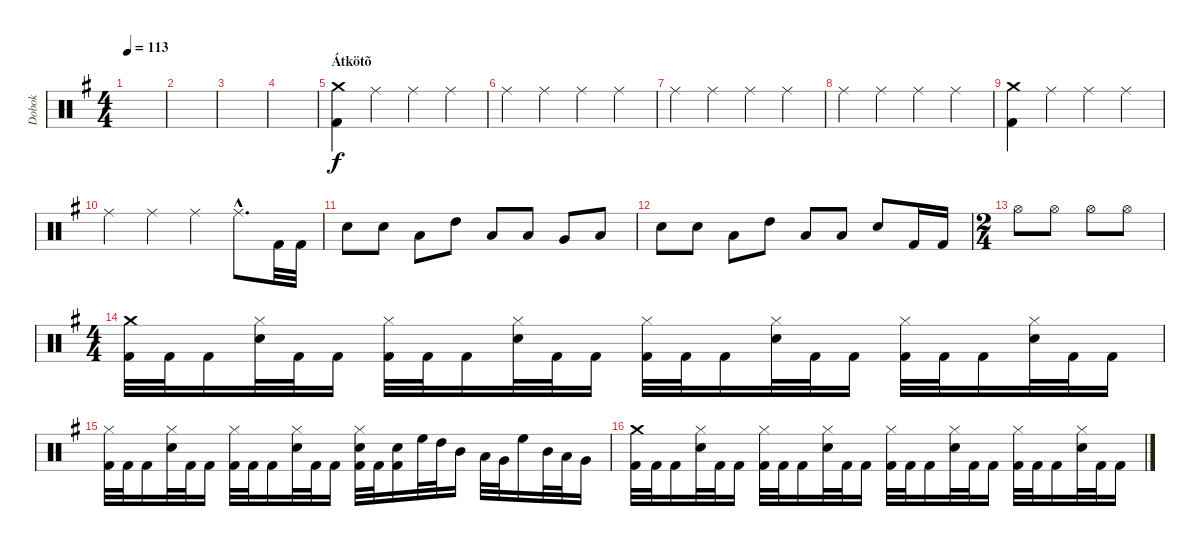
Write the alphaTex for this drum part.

\track ("Dobok" "Dobok") {instrument percussion}
\staff {score}
\articulation defaults
\ts (4 4)
\tempo 113
\clef neutral
\ks g
|
|
|
|
\section ("" "Átkötõ")
("Crash medium (hit)" "Kick (hit) 2").4 "Ride (middle)".4 "Ride (middle)".4 "Ride (middle)".4 |
"Ride (middle)".4 "Ride (middle)".4 "Ride (middle)".4 "Ride (middle)".4 |
"Ride (middle)".4 "Ride (middle)".4 "Ride (middle)".4 "Ride (middle)".4 |
"Ride (middle)".4 "Ride (middle)".4 "Ride (middle)".4 "Ride (middle)".4 |
("Crash medium (hit)" "Kick (hit) 2").4 "Ride (middle)".4 "Ride (middle)".4 "Ride (middle)".4 |
"Ride (middle)".4 "Ride (middle)".4 "Ride (middle)".4 "Ride (middle)"{hac}.8{d} "Kick (hit) 2".32 "Kick (hit) 2".32 |
"Snare (hit) 2".8 "Snare (hit) 2".8 "Low Floor Tom (hit)".8 "High Tom (hit)".8 "Low Floor Tom (hit)".8 "Low Tom (hit)".8 "Very Low Tom (hit)".8 "Low Floor Tom (hit)".8 |
"Snare (hit) 2".8 "Snare (hit) 2".8 "Low Floor Tom (hit)".8 "High Tom (hit)".8 "Low Floor Tom (hit)".8 "Low Tom (hit)".8 "Snare (hit) 2".8 "Kick (hit) 2".16 "Kick (hit) 2".16 |
\ts (2 4)
"Hi-Hat (open)".8 "Hi-Hat (open)".8 "Hi-Hat (open)".8 "Hi-Hat (open)".8 |
\ts (4 4)
("Crash medium (hit)" "Kick (hit) 2").32 "Kick (hit) 2".32 "Kick (hit) 2".16 ("Hi-Hat (closed)" "Snare (hit) 2").32 "Kick (hit) 2".32 "Kick (hit) 2".16 ("Hi-Hat (closed)" "Kick (hit) 2").32 "Kick (hit) 2".32 "Kick (hit) 2".16 ("Hi-Hat (closed)" "Snare (hit) 2").32 "Kick (hit) 2".32 "Kick (hit) 2".16 ("Hi-Hat (closed)" "Kick (hit) 2").32 "Kick (hit) 2".32 "Kick (hit) 2".16 ("Hi-Hat (closed)" "Snare (hit) 2").32 "Kick (hit) 2".32 "Kick (hit) 2".16 ("Hi-Hat (closed)" "Kick (hit) 2").32 "Kick (hit) 2".32 "Kick (hit) 2".16 ("Hi-Hat (closed)" "Snare (hit) 2").32 "Kick (hit) 2".32 "Kick (hit) 2".16 |
("Hi-Hat (closed)" "Kick (hit) 2").32 "Kick (hit) 2".32 "Kick (hit) 2".16 ("Hi-Hat (closed)" "Snare (hit) 2").32 "Kick (hit) 2".32 "Kick (hit) 2".16 ("Hi-Hat (closed)" "Kick (hit) 2").32 "Kick (hit) 2".32 "Kick (hit) 2".16 ("Hi-Hat (closed)" "Snare (hit) 2").32 "Kick (hit) 2".32 "Kick (hit) 2".16 ("Hi-Hat (closed)" "Snare (hit) 2" "Kick (hit) 2").32 "Kick (hit) 2".32 ("Snare (hit) 2" "Kick (hit) 2").16 "High Floor Tom (hit)".32 "High Tom (hit)".32 "Mid Tom (hit)".16 "Low Tom (hit)".32 "Very Low Tom (hit)".32 "High Floor Tom (hit)".16 "Mid Tom (hit)".32 "Low Tom (hit)".32 "Very Low Tom (hit)".16 |
("Crash medium (hit)" "Kick (hit) 2").32 "Kick (hit) 2".32 "Kick (hit) 2".16 ("Hi-Hat (closed)" "Snare (hit) 2").32 "Kick (hit) 2".32 "Kick (hit) 2".16 ("Hi-Hat (closed)" "Kick (hit) 2").32 "Kick (hit) 2".32 "Kick (hit) 2".16 ("Hi-Hat (closed)" "Snare (hit) 2").32 "Kick (hit) 2".32 "Kick (hit) 2".16 ("Hi-Hat (closed)" "Kick (hit) 2").32 "Kick (hit) 2".32 "Kick (hit) 2".16 ("Hi-Hat (closed)" "Snare (hit) 2").32 "Kick (hit) 2".32 "Kick (hit) 2".16 ("Hi-Hat (closed)" "Kick (hit) 2").32 "Kick (hit) 2".32 "Kick (hit) 2".16 ("Hi-Hat (closed)" "Snare (hit) 2").32 "Kick (hit) 2".32 "Kick (hit) 2".16
